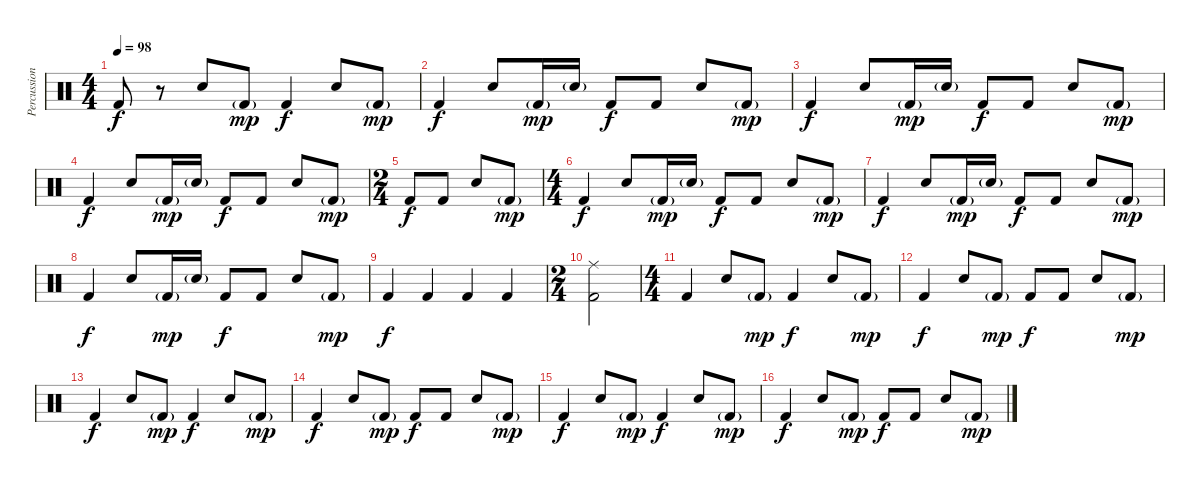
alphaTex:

\track ("Percussion" "Percussion") {instrument percussion}
\staff {score}
\articulation defaults
\ts (4 4)
\tempo 98
\clef neutral
\ks c "Kick (hit) 2".8{dy f}
r.8 "Snare (hit) 2".8 "Kick (hit) 2"{g}.8{dy mp} "Kick (hit) 2".4{dy f} "Snare (hit) 2".8 "Kick (hit) 2"{g}.8{dy mp} |
"Kick (hit) 2".4{dy f} "Snare (hit) 2".8 "Kick (hit) 2"{g}.16{dy mp} "Snare (hit) 2"{g}.16 "Kick (hit) 2".8{dy f} "Kick (hit) 2".8 "Snare (hit) 2".8 "Kick (hit) 2"{g}.8{dy mp} |
"Kick (hit) 2".4{dy f} "Snare (hit) 2".8 "Kick (hit) 2"{g}.16{dy mp} "Snare (hit) 2"{g}.16 "Kick (hit) 2".8{dy f} "Kick (hit) 2".8 "Snare (hit) 2".8 "Kick (hit) 2"{g}.8{dy mp} |
"Kick (hit) 2".4{dy f} "Snare (hit) 2".8 "Kick (hit) 2"{g}.16{dy mp} "Snare (hit) 2"{g}.16 "Kick (hit) 2".8{dy f} "Kick (hit) 2".8 "Snare (hit) 2".8 "Kick (hit) 2"{g}.8{dy mp} |
\ts (2 4)
"Kick (hit) 2".8{dy f} "Kick (hit) 2".8 "Snare (hit) 2".8 "Kick (hit) 2"{g}.8{dy mp} |
\ts (4 4)
"Kick (hit) 2".4{dy f} "Snare (hit) 2".8 "Kick (hit) 2"{g}.16{dy mp} "Snare (hit) 2"{g}.16 "Kick (hit) 2".8{dy f} "Kick (hit) 2".8 "Snare (hit) 2".8 "Kick (hit) 2"{g}.8{dy mp} |
"Kick (hit) 2".4{dy f} "Snare (hit) 2".8 "Kick (hit) 2"{g}.16{dy mp} "Snare (hit) 2"{g}.16 "Kick (hit) 2".8{dy f} "Kick (hit) 2".8 "Snare (hit) 2".8 "Kick (hit) 2"{g}.8{dy mp} |
"Kick (hit) 2".4{dy f} "Snare (hit) 2".8 "Kick (hit) 2"{g}.16{dy mp} "Snare (hit) 2"{g}.16 "Kick (hit) 2".8{dy f} "Kick (hit) 2".8 "Snare (hit) 2".8 "Kick (hit) 2"{g}.8{dy mp} |
"Kick (hit) 2".4{dy f} "Kick (hit) 2".4 "Kick (hit) 2".4 "Kick (hit) 2".4 |
\ts (2 4)
("Ride (middle)" "Kick (hit) 2").2 |
\ts (4 4)
"Kick (hit) 2".4 "Snare (hit) 2".8 "Kick (hit) 2"{g}.8{dy mp} "Kick (hit) 2".4{dy f} "Snare (hit) 2".8 "Kick (hit) 2"{g}.8{dy mp} |
"Kick (hit) 2".4{dy f} "Snare (hit) 2".8 "Kick (hit) 2"{g}.8{dy mp} "Kick (hit) 2".8{dy f} "Kick (hit) 2".8 "Snare (hit) 2".8 "Kick (hit) 2"{g}.8{dy mp} |
"Kick (hit) 2".4{dy f} "Snare (hit) 2".8 "Kick (hit) 2"{g}.8{dy mp} "Kick (hit) 2".4{dy f} "Snare (hit) 2".8 "Kick (hit) 2"{g}.8{dy mp} |
"Kick (hit) 2".4{dy f} "Snare (hit) 2".8 "Kick (hit) 2"{g}.8{dy mp} "Kick (hit) 2".8{dy f} "Kick (hit) 2".8 "Snare (hit) 2".8 "Kick (hit) 2"{g}.8{dy mp} |
"Kick (hit) 2".4{dy f} "Snare (hit) 2".8 "Kick (hit) 2"{g}.8{dy mp} "Kick (hit) 2".4{dy f} "Snare (hit) 2".8 "Kick (hit) 2"{g}.8{dy mp} |
"Kick (hit) 2".4{dy f} "Snare (hit) 2".8 "Kick (hit) 2"{g}.8{dy mp} "Kick (hit) 2".8{dy f} "Kick (hit) 2".8 "Snare (hit) 2".8 "Kick (hit) 2"{g}.8{dy mp}
